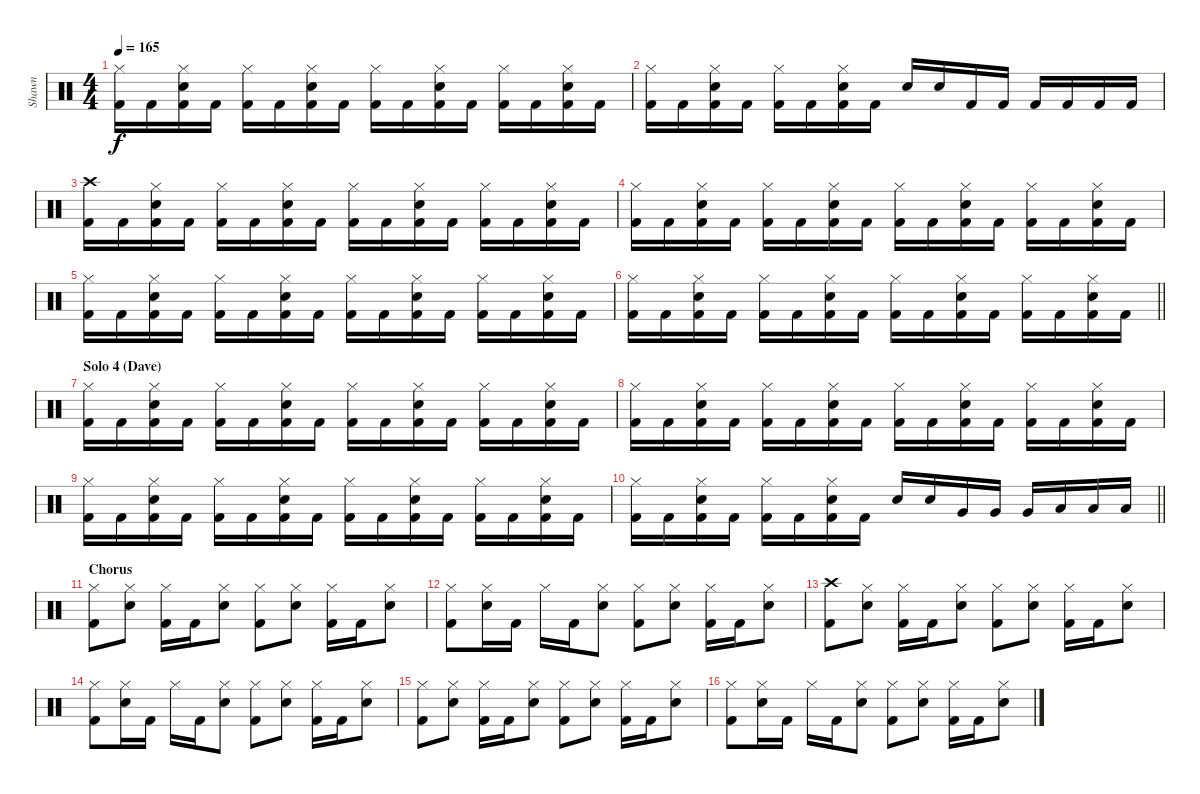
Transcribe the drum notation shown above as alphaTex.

\track ("Shawn" "Shawn") {instrument percussion}
\staff {score}
\articulation defaults
\ts (4 4)
\tempo 165
\clef neutral
\ks c
("Hi-Hat (closed)" "Kick (hit) 2").16{dy f} "Kick (hit) 2".16 ("Hi-Hat (closed)" "Snare (hit) 2" "Kick (hit) 2").16 "Kick (hit) 2".16 ("Hi-Hat (closed)" "Kick (hit) 2").16 "Kick (hit) 2".16 ("Hi-Hat (closed)" "Snare (hit) 2" "Kick (hit) 2").16 "Kick (hit) 2".16 ("Hi-Hat (closed)" "Kick (hit) 2").16 "Kick (hit) 2".16 ("Hi-Hat (closed)" "Snare (hit) 2" "Kick (hit) 2").16 "Kick (hit) 2".16 ("Hi-Hat (closed)" "Kick (hit) 2").16 "Kick (hit) 2".16 ("Hi-Hat (closed)" "Snare (hit) 2" "Kick (hit) 2").16 "Kick (hit) 2".16 |
("Hi-Hat (closed)" "Kick (hit) 2").16 "Kick (hit) 2".16 ("Hi-Hat (closed)" "Snare (hit) 2" "Kick (hit) 2").16 "Kick (hit) 2".16 ("Hi-Hat (closed)" "Kick (hit) 2").16 "Kick (hit) 2".16 ("Hi-Hat (closed)" "Snare (hit) 2" "Kick (hit) 2").16 "Kick (hit) 2".16 "Snare (hit) 2".16 "Snare (hit) 2".16 "Kick (hit) 2".16 "Kick (hit) 2".16 "Kick (hit) 2".16 "Kick (hit) 2".16 "Kick (hit) 2".16 "Kick (hit) 2".16 |
("Crash high (hit)" "Kick (hit) 2").16 "Kick (hit) 2".16 ("Hi-Hat (closed)" "Snare (hit) 2" "Kick (hit) 2").16 "Kick (hit) 2".16 ("Hi-Hat (closed)" "Kick (hit) 2").16 "Kick (hit) 2".16 ("Hi-Hat (closed)" "Snare (hit) 2" "Kick (hit) 2").16 "Kick (hit) 2".16 ("Hi-Hat (closed)" "Kick (hit) 2").16 "Kick (hit) 2".16 ("Hi-Hat (closed)" "Snare (hit) 2" "Kick (hit) 2").16 "Kick (hit) 2".16 ("Hi-Hat (closed)" "Kick (hit) 2").16 "Kick (hit) 2".16 ("Hi-Hat (closed)" "Snare (hit) 2" "Kick (hit) 2").16 "Kick (hit) 2".16 |
("Hi-Hat (closed)" "Kick (hit) 2").16 "Kick (hit) 2".16 ("Hi-Hat (closed)" "Snare (hit) 2" "Kick (hit) 2").16 "Kick (hit) 2".16 ("Hi-Hat (closed)" "Kick (hit) 2").16 "Kick (hit) 2".16 ("Hi-Hat (closed)" "Snare (hit) 2" "Kick (hit) 2").16 "Kick (hit) 2".16 ("Hi-Hat (closed)" "Kick (hit) 2").16 "Kick (hit) 2".16 ("Hi-Hat (closed)" "Snare (hit) 2" "Kick (hit) 2").16 "Kick (hit) 2".16 ("Hi-Hat (closed)" "Kick (hit) 2").16 "Kick (hit) 2".16 ("Hi-Hat (closed)" "Snare (hit) 2" "Kick (hit) 2").16 "Kick (hit) 2".16 |
("Hi-Hat (closed)" "Kick (hit) 2").16 "Kick (hit) 2".16 ("Hi-Hat (closed)" "Snare (hit) 2" "Kick (hit) 2").16 "Kick (hit) 2".16 ("Hi-Hat (closed)" "Kick (hit) 2").16 "Kick (hit) 2".16 ("Hi-Hat (closed)" "Snare (hit) 2" "Kick (hit) 2").16 "Kick (hit) 2".16 ("Hi-Hat (closed)" "Kick (hit) 2").16 "Kick (hit) 2".16 ("Hi-Hat (closed)" "Snare (hit) 2" "Kick (hit) 2").16 "Kick (hit) 2".16 ("Hi-Hat (closed)" "Kick (hit) 2").16 "Kick (hit) 2".16 ("Hi-Hat (closed)" "Snare (hit) 2" "Kick (hit) 2").16 "Kick (hit) 2".16 |
\barLineRight lightlight
("Hi-Hat (closed)" "Kick (hit) 2").16 "Kick (hit) 2".16 ("Hi-Hat (closed)" "Snare (hit) 2" "Kick (hit) 2").16 "Kick (hit) 2".16 ("Hi-Hat (closed)" "Kick (hit) 2").16 "Kick (hit) 2".16 ("Hi-Hat (closed)" "Snare (hit) 2" "Kick (hit) 2").16 "Kick (hit) 2".16 ("Hi-Hat (closed)" "Kick (hit) 2").16 "Kick (hit) 2".16 ("Hi-Hat (closed)" "Snare (hit) 2" "Kick (hit) 2").16 "Kick (hit) 2".16 ("Hi-Hat (closed)" "Kick (hit) 2").16 "Kick (hit) 2".16 ("Hi-Hat (closed)" "Snare (hit) 2" "Kick (hit) 2").16 "Kick (hit) 2".16 |
\section ("" "Solo 4 (Dave)")
("Hi-Hat (closed)" "Kick (hit) 2").16 "Kick (hit) 2".16 ("Hi-Hat (closed)" "Snare (hit) 2" "Kick (hit) 2").16 "Kick (hit) 2".16 ("Hi-Hat (closed)" "Kick (hit) 2").16 "Kick (hit) 2".16 ("Hi-Hat (closed)" "Snare (hit) 2" "Kick (hit) 2").16 "Kick (hit) 2".16 ("Hi-Hat (closed)" "Kick (hit) 2").16 "Kick (hit) 2".16 ("Hi-Hat (closed)" "Snare (hit) 2" "Kick (hit) 2").16 "Kick (hit) 2".16 ("Hi-Hat (closed)" "Kick (hit) 2").16 "Kick (hit) 2".16 ("Hi-Hat (closed)" "Snare (hit) 2" "Kick (hit) 2").16 "Kick (hit) 2".16 |
("Hi-Hat (closed)" "Kick (hit) 2").16 "Kick (hit) 2".16 ("Hi-Hat (closed)" "Snare (hit) 2" "Kick (hit) 2").16 "Kick (hit) 2".16 ("Hi-Hat (closed)" "Kick (hit) 2").16 "Kick (hit) 2".16 ("Hi-Hat (closed)" "Snare (hit) 2" "Kick (hit) 2").16 "Kick (hit) 2".16 ("Hi-Hat (closed)" "Kick (hit) 2").16 "Kick (hit) 2".16 ("Hi-Hat (closed)" "Snare (hit) 2" "Kick (hit) 2").16 "Kick (hit) 2".16 ("Hi-Hat (closed)" "Kick (hit) 2").16 "Kick (hit) 2".16 ("Hi-Hat (closed)" "Snare (hit) 2" "Kick (hit) 2").16 "Kick (hit) 2".16 |
("Hi-Hat (closed)" "Kick (hit) 2").16 "Kick (hit) 2".16 ("Hi-Hat (closed)" "Snare (hit) 2" "Kick (hit) 2").16 "Kick (hit) 2".16 ("Hi-Hat (closed)" "Kick (hit) 2").16 "Kick (hit) 2".16 ("Hi-Hat (closed)" "Snare (hit) 2" "Kick (hit) 2").16 "Kick (hit) 2".16 ("Hi-Hat (closed)" "Kick (hit) 2").16 "Kick (hit) 2".16 ("Hi-Hat (closed)" "Snare (hit) 2" "Kick (hit) 2").16 "Kick (hit) 2".16 ("Hi-Hat (closed)" "Kick (hit) 2").16 "Kick (hit) 2".16 ("Hi-Hat (closed)" "Snare (hit) 2" "Kick (hit) 2").16 "Kick (hit) 2".16 |
\barLineRight lightlight
("Hi-Hat (closed)" "Kick (hit) 2").16 "Kick (hit) 2".16 ("Hi-Hat (closed)" "Snare (hit) 2" "Kick (hit) 2").16 "Kick (hit) 2".16 ("Hi-Hat (closed)" "Kick (hit) 2").16 "Kick (hit) 2".16 ("Hi-Hat (closed)" "Snare (hit) 2" "Kick (hit) 2").16 "Kick (hit) 2".16 "Snare (hit) 2".16 "Snare (hit) 2".16 "Very Low Tom (hit)".16 "Very Low Tom (hit)".16 "Very Low Tom (hit)".16 "Low Floor Tom (hit)".16 "Low Floor Tom (hit)".16 "Low Floor Tom (hit)".16 |
\section ("" "Chorus")
("Hi-Hat (closed)" "Kick (hit) 2").8 ("Hi-Hat (closed)" "Snare (hit) 2").8 ("Hi-Hat (closed)" "Kick (hit) 2").16 "Kick (hit) 2".16 ("Hi-Hat (closed)" "Snare (hit) 2").8 ("Hi-Hat (closed)" "Kick (hit) 2").8 ("Hi-Hat (closed)" "Snare (hit) 2").8 ("Hi-Hat (closed)" "Kick (hit) 2").16 "Kick (hit) 2".16 ("Hi-Hat (closed)" "Snare (hit) 2").8 |
("Hi-Hat (closed)" "Kick (hit) 2").8 ("Hi-Hat (closed)" "Snare (hit) 2").16 "Kick (hit) 2".16 "Hi-Hat (closed)".16 "Kick (hit) 2".16 ("Hi-Hat (closed)" "Snare (hit) 2").8 ("Hi-Hat (closed)" "Kick (hit) 2").8 ("Hi-Hat (closed)" "Snare (hit) 2").8 ("Hi-Hat (closed)" "Kick (hit) 2").16 "Kick (hit) 2".16 ("Hi-Hat (closed)" "Snare (hit) 2").8 |
("Crash high (hit)" "Kick (hit) 2").8 ("Hi-Hat (closed)" "Snare (hit) 2").8 ("Hi-Hat (closed)" "Kick (hit) 2").16 "Kick (hit) 2".16 ("Hi-Hat (closed)" "Snare (hit) 2").8 ("Hi-Hat (closed)" "Kick (hit) 2").8 ("Hi-Hat (closed)" "Snare (hit) 2").8 ("Hi-Hat (closed)" "Kick (hit) 2").16 "Kick (hit) 2".16 ("Hi-Hat (closed)" "Snare (hit) 2").8 |
("Hi-Hat (closed)" "Kick (hit) 2").8 ("Hi-Hat (closed)" "Snare (hit) 2").16 "Kick (hit) 2".16 "Hi-Hat (closed)".16 "Kick (hit) 2".16 ("Hi-Hat (closed)" "Snare (hit) 2").8 ("Hi-Hat (closed)" "Kick (hit) 2").8 ("Hi-Hat (closed)" "Snare (hit) 2").8 ("Hi-Hat (closed)" "Kick (hit) 2").16 "Kick (hit) 2".16 ("Hi-Hat (closed)" "Snare (hit) 2").8 |
("Hi-Hat (closed)" "Kick (hit) 2").8 ("Hi-Hat (closed)" "Snare (hit) 2").8 ("Hi-Hat (closed)" "Kick (hit) 2").16 "Kick (hit) 2".16 ("Hi-Hat (closed)" "Snare (hit) 2").8 ("Hi-Hat (closed)" "Kick (hit) 2").8 ("Hi-Hat (closed)" "Snare (hit) 2").8 ("Hi-Hat (closed)" "Kick (hit) 2").16 "Kick (hit) 2".16 ("Hi-Hat (closed)" "Snare (hit) 2").8 |
("Hi-Hat (closed)" "Kick (hit) 2").8 ("Hi-Hat (closed)" "Snare (hit) 2").16 "Kick (hit) 2".16 "Hi-Hat (closed)".16 "Kick (hit) 2".16 ("Hi-Hat (closed)" "Snare (hit) 2").8 ("Hi-Hat (closed)" "Kick (hit) 2").8 ("Hi-Hat (closed)" "Snare (hit) 2").8 ("Hi-Hat (closed)" "Kick (hit) 2").16 "Kick (hit) 2".16 ("Hi-Hat (closed)" "Snare (hit) 2").8
